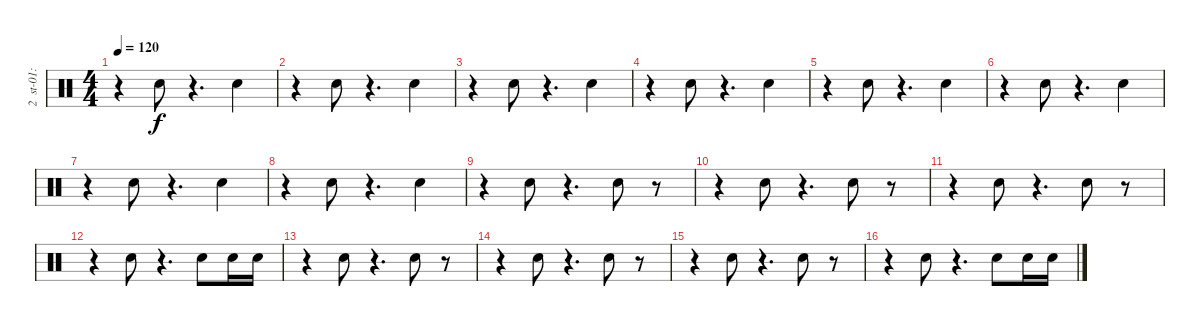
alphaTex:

\track (" 2  st-01:popsnare2" " 2  st-01:") {instrument percussion}
\staff {score}
\articulation defaults
\ts (4 4)
\tempo 120
\clef neutral
\ks c
r.4{dy f} "Snare (hit) 2".8 r.4{d} "Snare (hit) 2".4 |
r.4 "Snare (hit) 2".8 r.4{d} "Snare (hit) 2".4 |
r.4 "Snare (hit) 2".8 r.4{d} "Snare (hit) 2".4 |
r.4 "Snare (hit) 2".8 r.4{d} "Snare (hit) 2".4 |
r.4 "Snare (hit) 2".8 r.4{d} "Snare (hit) 2".4 |
r.4 "Snare (hit) 2".8 r.4{d} "Snare (hit) 2".4 |
r.4 "Snare (hit) 2".8 r.4{d} "Snare (hit) 2".4 |
r.4 "Snare (hit) 2".8 r.4{d} "Snare (hit) 2".4 |
r.4 "Snare (hit) 2".8 r.4{d} "Snare (hit) 2".8 r.8 |
r.4 "Snare (hit) 2".8 r.4{d} "Snare (hit) 2".8 r.8 |
r.4 "Snare (hit) 2".8 r.4{d} "Snare (hit) 2".8 r.8 |
r.4 "Snare (hit) 2".8 r.4{d} "Snare (hit) 2".8 "Snare (hit) 2".16 "Snare (hit) 2".16 |
r.4 "Snare (hit) 2".8 r.4{d} "Snare (hit) 2".8 r.8 |
r.4 "Snare (hit) 2".8 r.4{d} "Snare (hit) 2".8 r.8 |
r.4 "Snare (hit) 2".8 r.4{d} "Snare (hit) 2".8 r.8 |
r.4 "Snare (hit) 2".8 r.4{d} "Snare (hit) 2".8 "Snare (hit) 2".16 "Snare (hit) 2".16
